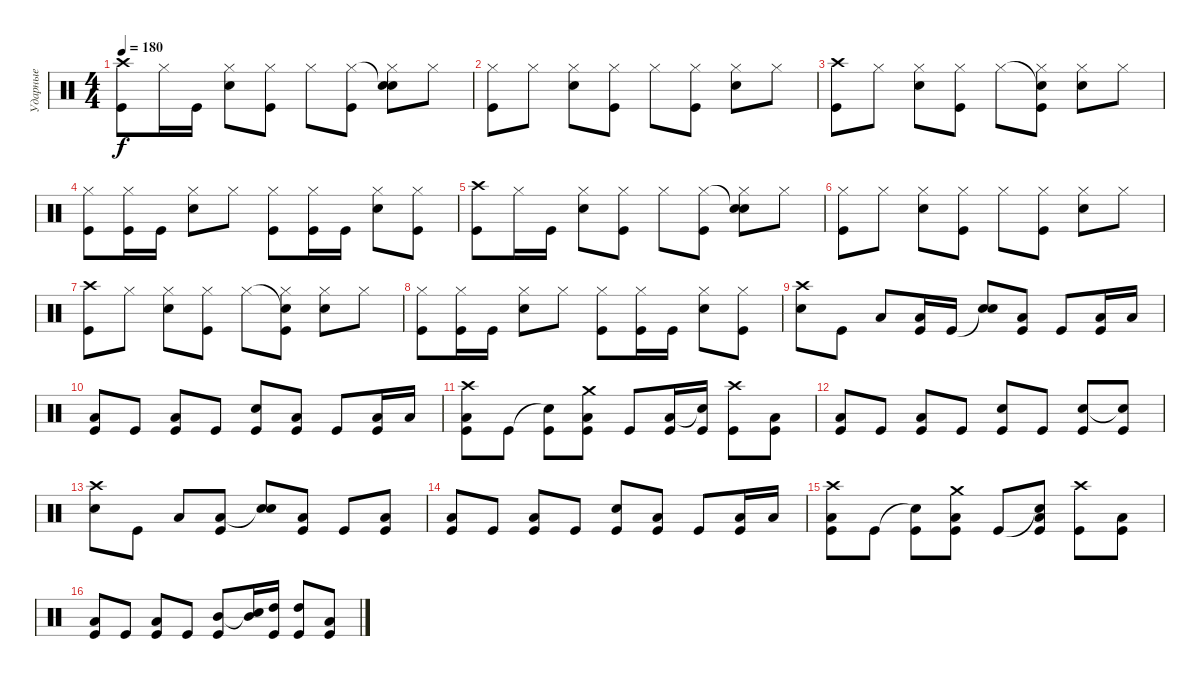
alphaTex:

\track ("Ударные" "Ударные") {instrument percussion}
\staff {score}
\articulation defaults
\ts (4 4)
\tempo 180
\clef neutral
\ks c
("Crash high (hit)" "Kick (hit)").8{dy f} "Hi-Hat (closed)".16 "Kick (hit)".16 ("Hi-Hat (closed)" "Electric Snare (hit)").8 ("Hi-Hat (closed)" "Kick (hit)").8 "Hi-Hat (closed)".8 ("Hi-Hat (closed)" "Kick (hit)").8 ("Snare (hit)"{t} "Hi-Hat (closed)" "Electric Snare (hit)").8 "Hi-Hat (closed)".8 |
("Hi-Hat (closed)" "Kick (hit)").8 "Hi-Hat (closed)".8 ("Hi-Hat (closed)" "Electric Snare (hit)").8 ("Hi-Hat (closed)" "Kick (hit)").8 "Hi-Hat (closed)".8 ("Hi-Hat (closed)" "Kick (hit)").8 ("Hi-Hat (closed)" "Electric Snare (hit)").8 "Hi-Hat (closed)".8 |
("Crash high (hit)" "Kick (hit)").8 "Hi-Hat (closed)".8 ("Hi-Hat (closed)" "Electric Snare (hit)").8 ("Hi-Hat (closed)" "Kick (hit)").8 "Hi-Hat (closed)".8 ("Snare (hit)"{t} "Hi-Hat (closed)" "Kick (hit)").8 ("Hi-Hat (closed)" "Electric Snare (hit)").8 "Hi-Hat (closed)".8 |
("Hi-Hat (closed)" "Kick (hit)").8 ("Hi-Hat (closed)" "Kick (hit)").16 "Kick (hit)".16 ("Hi-Hat (closed)" "Electric Snare (hit)").8 "Hi-Hat (closed)".8 ("Hi-Hat (closed)" "Kick (hit)").8 ("Hi-Hat (closed)" "Kick (hit)").16 "Kick (hit)".16 ("Hi-Hat (closed)" "Electric Snare (hit)").8 ("Hi-Hat (closed)" "Kick (hit)").8 |
("Crash high (hit)" "Kick (hit)").8 "Hi-Hat (closed)".16 "Kick (hit)".16 ("Hi-Hat (closed)" "Electric Snare (hit)").8 ("Hi-Hat (closed)" "Kick (hit)").8 "Hi-Hat (closed)".8 ("Hi-Hat (closed)" "Kick (hit)").8 ("Snare (hit)"{t} "Hi-Hat (closed)" "Electric Snare (hit)").8 "Hi-Hat (closed)".8 |
("Hi-Hat (closed)" "Kick (hit)").8 "Hi-Hat (closed)".8 ("Hi-Hat (closed)" "Electric Snare (hit)").8 ("Hi-Hat (closed)" "Kick (hit)").8 "Hi-Hat (closed)".8 ("Hi-Hat (closed)" "Kick (hit)").8 ("Hi-Hat (closed)" "Electric Snare (hit)").8 "Hi-Hat (closed)".8 |
("Crash high (hit)" "Kick (hit)").8 "Hi-Hat (closed)".8 ("Hi-Hat (closed)" "Electric Snare (hit)").8 ("Hi-Hat (closed)" "Kick (hit)").8 "Hi-Hat (closed)".8 ("Snare (hit)"{t} "Hi-Hat (closed)" "Kick (hit)").8 ("Hi-Hat (closed)" "Electric Snare (hit)").8 "Hi-Hat (closed)".8 |
("Hi-Hat (closed)" "Kick (hit)").8 ("Hi-Hat (closed)" "Kick (hit)").16 "Kick (hit)".16 ("Hi-Hat (closed)" "Electric Snare (hit)").8 "Hi-Hat (closed)".8 ("Hi-Hat (closed)" "Kick (hit)").8 ("Hi-Hat (closed)" "Kick (hit)").16 "Kick (hit)".16 ("Hi-Hat (closed)" "Electric Snare (hit)").8 ("Hi-Hat (closed)" "Kick (hit)").8 |
("Crash high (hit)" "Electric Snare (hit)").8 "Kick (hit)".8 "Low Tom (hit)".8 ("Low Tom (hit)" "Kick (hit)").16 "Kick (hit)".16 ("Snare (hit)"{t} "Electric Snare (hit)").8 ("Low Tom (hit)" "Kick (hit)").8 "Kick (hit)".8 ("Low Tom (hit)" "Kick (hit)").16 "Low Tom (hit)".16 |
("Low Tom (hit)" "Kick (hit)").8 "Kick (hit)".8 ("Low Tom (hit)" "Kick (hit)").8 "Kick (hit)".8 ("Electric Snare (hit)" "Kick (hit)").8 ("Low Tom (hit)" "Kick (hit)").8 "Kick (hit)".8 ("Low Tom (hit)" "Kick (hit)").16 "Low Tom (hit)".16 |
("Crash high (hit)" "Low Tom (hit)" "Kick (hit)").8 "Kick (hit)".8 ("Snare (hit)"{t} "Kick (hit)").8 ("Crash medium (hit)" "Low Tom (hit)" "Kick (hit)").8 "Kick (hit)".8 ("Low Tom (hit)" "Kick (hit)").16 ("Snare (hit)"{t} "Kick (hit)").16 ("Crash high (hit)" "Kick (hit)").8 ("Low Tom (hit)" "Kick (hit)").8 |
("Low Tom (hit)" "Kick (hit)").8 "Kick (hit)".8 ("Low Tom (hit)" "Kick (hit)").8 "Kick (hit)".8 ("Electric Snare (hit)" "Kick (hit)").8 "Kick (hit)".8 ("Electric Snare (hit)" "Kick (hit)").8 ("Snare (hit)"{t} "Kick (hit)").8 |
("Crash high (hit)" "Electric Snare (hit)").8 "Kick (hit)".8 "Low Tom (hit)".8 ("Low Tom (hit)" "Kick (hit)").8 ("Snare (hit)"{t} "Electric Snare (hit)").8 ("Low Tom (hit)" "Kick (hit)").8 "Kick (hit)".8 ("Low Tom (hit)" "Kick (hit)").8 |
("Low Tom (hit)" "Kick (hit)").8 "Kick (hit)".8 ("Low Tom (hit)" "Kick (hit)").8 "Kick (hit)".8 ("Electric Snare (hit)" "Kick (hit)").8 ("Low Tom (hit)" "Kick (hit)").8 "Kick (hit)".8 ("Low Tom (hit)" "Kick (hit)").16 "Low Tom (hit)".16 |
("Crash high (hit)" "Low Tom (hit)" "Kick (hit)").8 "Kick (hit)".8 ("Snare (hit)"{t} "Kick (hit)").8 ("Crash medium (hit)" "Low Tom (hit)" "Kick (hit)").8 "Kick (hit)".8 ("Snare (hit)"{t} "Low Tom (hit)" "Kick (hit)").8 ("Crash high (hit)" "Kick (hit)").8 ("Low Tom (hit)" "Kick (hit)").8 |
("Low Tom (hit)" "Kick (hit)").8 "Kick (hit)".8 ("Low Tom (hit)" "Kick (hit)").8 "Kick (hit)".8 ("Mid Tom (hit)" "Kick (hit)").8 ("Snare (hit)"{t} "Mid Tom (hit)").16 ("High Tom (hit)" "Kick (hit)").16 ("High Tom (hit)" "Kick (hit)").8 ("Low Tom (hit)" "Kick (hit)").8
